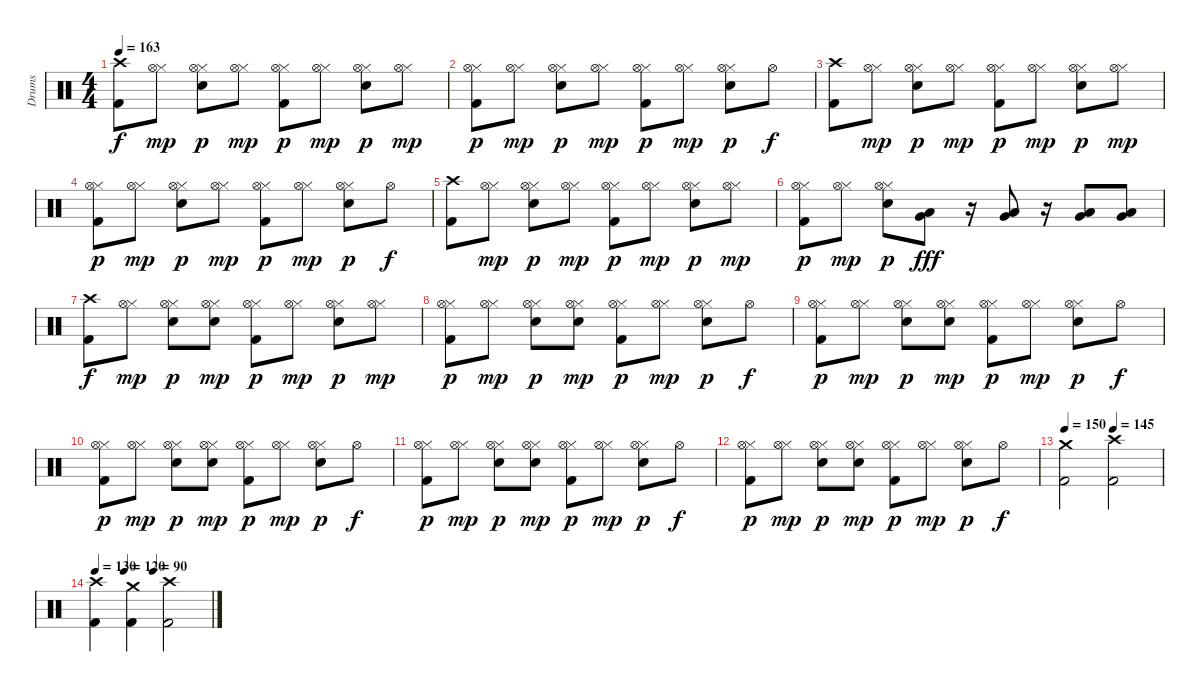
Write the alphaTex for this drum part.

\track ("Drums" "Drums") {instrument percussion}
\staff {score}
\articulation defaults
\ts (4 4)
\tempo 163
\clef neutral
\ks c
("Kick (hit) 2" "Crash high (hit)").8{dy f} ("Hi-Hat (closed)" "Hi-Hat (open)").8{dy mp} ("Electric Snare (hit)" "Hi-Hat (closed)" "Hi-Hat (open)").8{dy p} ("Hi-Hat (closed)" "Hi-Hat (open)").8{dy mp} ("Kick (hit) 2" "Hi-Hat (closed)" "Hi-Hat (open)").8{dy p} ("Hi-Hat (closed)" "Hi-Hat (open)").8{dy mp} ("Electric Snare (hit)" "Hi-Hat (closed)" "Hi-Hat (open)").8{dy p} ("Hi-Hat (closed)" "Hi-Hat (open)").8{dy mp} |
("Kick (hit) 2" "Hi-Hat (closed)" "Hi-Hat (open)").8{dy p} ("Hi-Hat (closed)" "Hi-Hat (open)").8{dy mp} ("Electric Snare (hit)" "Hi-Hat (closed)" "Hi-Hat (open)").8{dy p} ("Hi-Hat (closed)" "Hi-Hat (open)").8{dy mp} ("Kick (hit) 2" "Hi-Hat (closed)" "Hi-Hat (open)").8{dy p} ("Hi-Hat (closed)" "Hi-Hat (open)").8{dy mp} ("Electric Snare (hit)" "Hi-Hat (closed)" "Hi-Hat (open)").8{dy p} "Hi-Hat (open)".8{dy f} |
("Kick (hit) 2" "Crash high (hit)").8 ("Hi-Hat (closed)" "Hi-Hat (open)").8{dy mp} ("Electric Snare (hit)" "Hi-Hat (closed)" "Hi-Hat (open)").8{dy p} ("Hi-Hat (closed)" "Hi-Hat (open)").8{dy mp} ("Kick (hit) 2" "Hi-Hat (closed)" "Hi-Hat (open)").8{dy p} ("Hi-Hat (closed)" "Hi-Hat (open)").8{dy mp} ("Electric Snare (hit)" "Hi-Hat (closed)" "Hi-Hat (open)").8{dy p} ("Hi-Hat (closed)" "Hi-Hat (open)").8{dy mp} |
("Kick (hit) 2" "Hi-Hat (closed)" "Hi-Hat (open)").8{dy p} ("Hi-Hat (closed)" "Hi-Hat (open)").8{dy mp} ("Electric Snare (hit)" "Hi-Hat (closed)" "Hi-Hat (open)").8{dy p} ("Hi-Hat (closed)" "Hi-Hat (open)").8{dy mp} ("Kick (hit) 2" "Hi-Hat (closed)" "Hi-Hat (open)").8{dy p} ("Hi-Hat (closed)" "Hi-Hat (open)").8{dy mp} ("Electric Snare (hit)" "Hi-Hat (closed)" "Hi-Hat (open)").8{dy p} "Hi-Hat (open)".8{dy f} |
("Kick (hit) 2" "Crash high (hit)").8 ("Hi-Hat (closed)" "Hi-Hat (open)").8{dy mp} ("Electric Snare (hit)" "Hi-Hat (closed)" "Hi-Hat (open)").8{dy p} ("Hi-Hat (closed)" "Hi-Hat (open)").8{dy mp} ("Kick (hit) 2" "Hi-Hat (closed)" "Hi-Hat (open)").8{dy p} ("Hi-Hat (closed)" "Hi-Hat (open)").8{dy mp} ("Electric Snare (hit)" "Hi-Hat (closed)" "Hi-Hat (open)").8{dy p} ("Hi-Hat (closed)" "Hi-Hat (open)").8{dy mp} |
("Kick (hit) 2" "Hi-Hat (closed)" "Hi-Hat (open)").8{dy p} ("Hi-Hat (closed)" "Hi-Hat (open)").8{dy mp} ("Electric Snare (hit)" "Hi-Hat (closed)" "Hi-Hat (open)").8{dy p} ("Low Floor Tom (hit)" "Very Low Tom (hit)").8{dy fff} r.16 ("Low Floor Tom (hit)" "Very Low Tom (hit)").8 r.16 ("Low Floor Tom (hit)" "Very Low Tom (hit)").8 ("Low Floor Tom (hit)" "Very Low Tom (hit)").8 |
("Kick (hit) 2" "Crash high (hit)").8{dy f} ("Hi-Hat (closed)" "Hi-Hat (open)").8{dy mp} ("Electric Snare (hit)" "Hi-Hat (closed)" "Hi-Hat (open)").8{dy p} ("Electric Snare (hit)" "Hi-Hat (closed)" "Hi-Hat (open)").8{dy mp} ("Kick (hit) 2" "Hi-Hat (closed)" "Hi-Hat (open)").8{dy p} ("Hi-Hat (closed)" "Hi-Hat (open)").8{dy mp} ("Electric Snare (hit)" "Hi-Hat (closed)" "Hi-Hat (open)").8{dy p} ("Hi-Hat (closed)" "Hi-Hat (open)").8{dy mp} |
("Kick (hit) 2" "Hi-Hat (closed)" "Hi-Hat (open)").8{dy p} ("Hi-Hat (closed)" "Hi-Hat (open)").8{dy mp} ("Electric Snare (hit)" "Hi-Hat (closed)" "Hi-Hat (open)").8{dy p} ("Electric Snare (hit)" "Hi-Hat (closed)" "Hi-Hat (open)").8{dy mp} ("Kick (hit) 2" "Hi-Hat (closed)" "Hi-Hat (open)").8{dy p} ("Hi-Hat (closed)" "Hi-Hat (open)").8{dy mp} ("Electric Snare (hit)" "Hi-Hat (closed)" "Hi-Hat (open)").8{dy p} "Hi-Hat (open)".8{dy f} |
("Kick (hit) 2" "Hi-Hat (closed)" "Hi-Hat (open)").8{dy p} ("Hi-Hat (closed)" "Hi-Hat (open)").8{dy mp} ("Electric Snare (hit)" "Hi-Hat (closed)" "Hi-Hat (open)").8{dy p} ("Electric Snare (hit)" "Hi-Hat (closed)" "Hi-Hat (open)").8{dy mp} ("Kick (hit) 2" "Hi-Hat (closed)" "Hi-Hat (open)").8{dy p} ("Hi-Hat (closed)" "Hi-Hat (open)").8{dy mp} ("Electric Snare (hit)" "Hi-Hat (closed)" "Hi-Hat (open)").8{dy p} "Hi-Hat (open)".8{dy f} |
("Kick (hit) 2" "Hi-Hat (closed)" "Hi-Hat (open)").8{dy p} ("Hi-Hat (closed)" "Hi-Hat (open)").8{dy mp} ("Electric Snare (hit)" "Hi-Hat (closed)" "Hi-Hat (open)").8{dy p} ("Electric Snare (hit)" "Hi-Hat (closed)" "Hi-Hat (open)").8{dy mp} ("Kick (hit) 2" "Hi-Hat (closed)" "Hi-Hat (open)").8{dy p} ("Hi-Hat (closed)" "Hi-Hat (open)").8{dy mp} ("Electric Snare (hit)" "Hi-Hat (closed)" "Hi-Hat (open)").8{dy p} "Hi-Hat (open)".8{dy f} |
("Kick (hit) 2" "Hi-Hat (closed)" "Hi-Hat (open)").8{dy p} ("Hi-Hat (closed)" "Hi-Hat (open)").8{dy mp} ("Electric Snare (hit)" "Hi-Hat (closed)" "Hi-Hat (open)").8{dy p} ("Electric Snare (hit)" "Hi-Hat (closed)" "Hi-Hat (open)").8{dy mp} ("Kick (hit) 2" "Hi-Hat (closed)" "Hi-Hat (open)").8{dy p} ("Hi-Hat (closed)" "Hi-Hat (open)").8{dy mp} ("Electric Snare (hit)" "Hi-Hat (closed)" "Hi-Hat (open)").8{dy p} "Hi-Hat (open)".8{dy f} |
("Kick (hit) 2" "Hi-Hat (closed)" "Hi-Hat (open)").8{dy p} ("Hi-Hat (closed)" "Hi-Hat (open)").8{dy mp} ("Electric Snare (hit)" "Hi-Hat (closed)" "Hi-Hat (open)").8{dy p} ("Electric Snare (hit)" "Hi-Hat (closed)" "Hi-Hat (open)").8{dy mp} ("Kick (hit) 2" "Hi-Hat (closed)" "Hi-Hat (open)").8{dy p} ("Hi-Hat (closed)" "Hi-Hat (open)").8{dy mp} ("Electric Snare (hit)" "Hi-Hat (closed)" "Hi-Hat (open)").8{dy p} "Hi-Hat (open)".8{dy f} |
\tempo 150
\tempo (145 0.5)
("Kick (hit) 2" "Crash medium (hit)").2 ("Kick (hit) 2" "Crash high (hit)").2 |
\tempo 130
\tempo (120 0.25)
\tempo (90 0.5)
("Kick (hit) 2" "Crash high (hit)").4 ("Kick (hit) 2" "Crash medium (hit)").4 ("Kick (hit) 2" "Crash high (hit)").2
